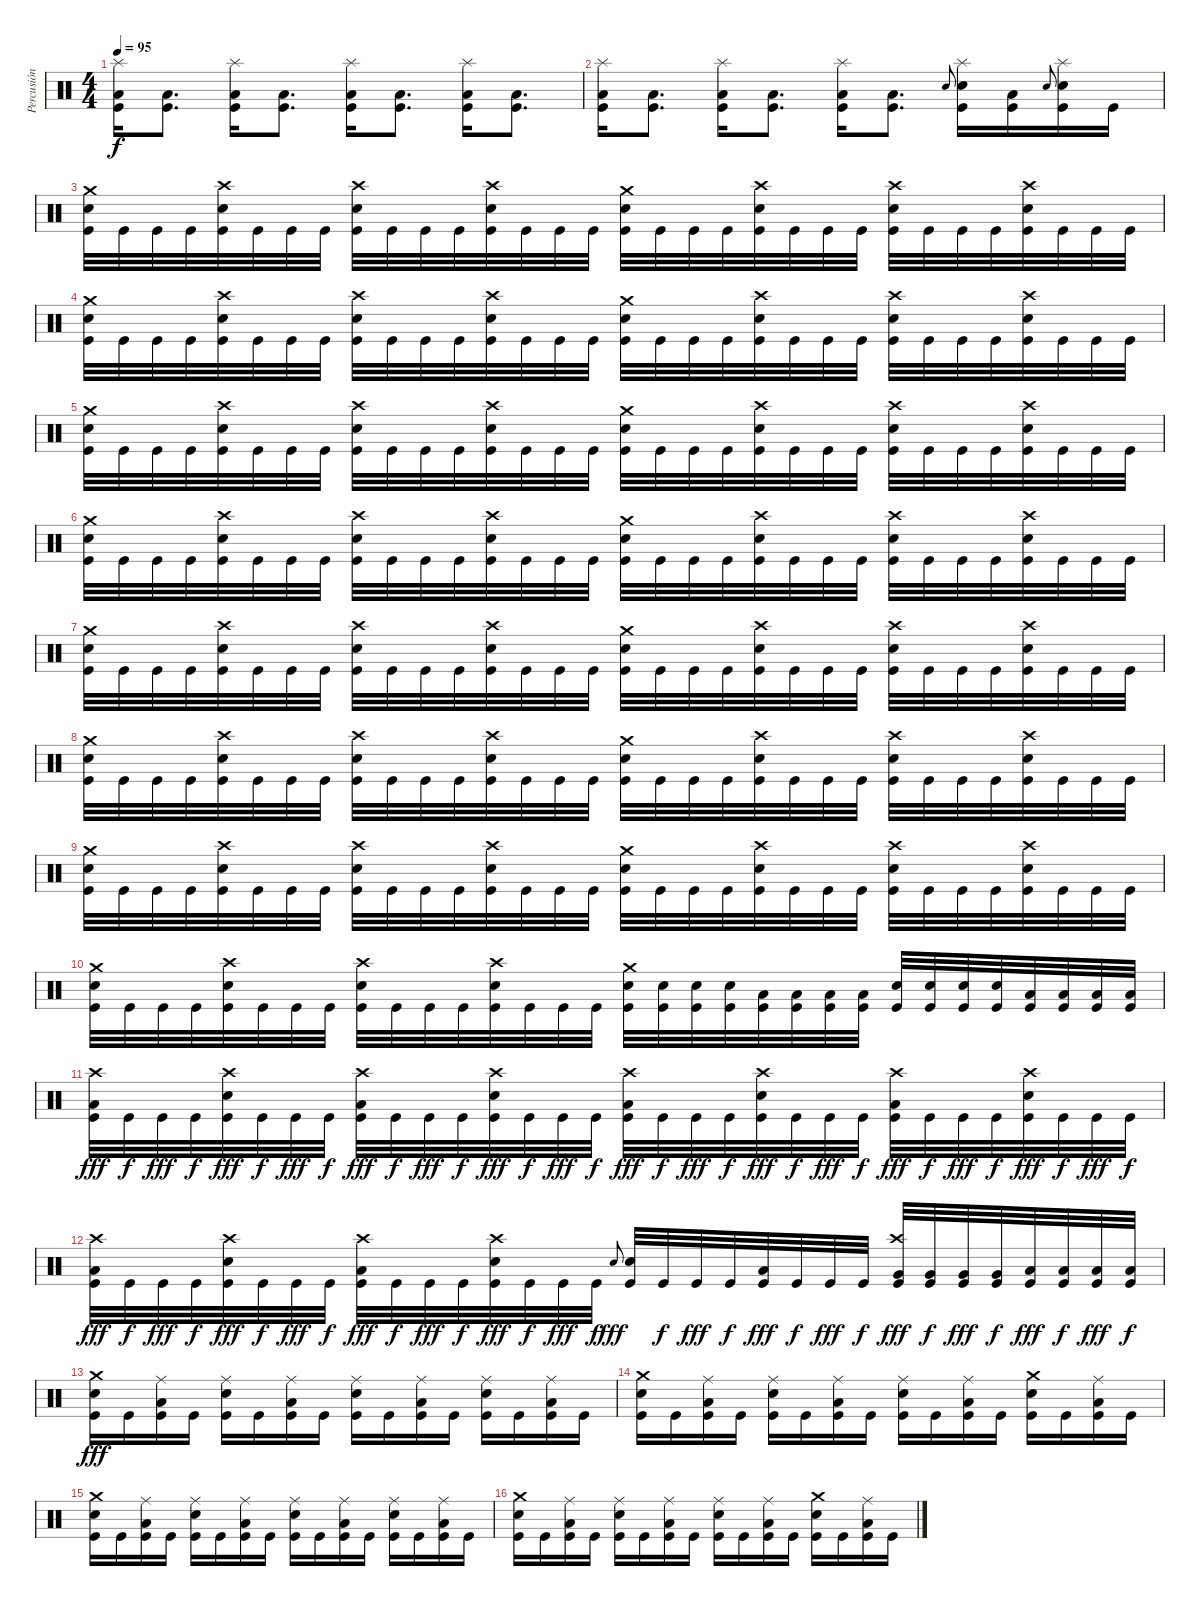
\track ("Percusión" "Percusión") {instrument percussion}
\staff {score}
\articulation defaults
\ts (4 4)
\tempo 95
\clef neutral
\ks c
("Splash (hit)" "Low Floor Tom (hit)" "Kick (hit)").16{dy f} ("Low Floor Tom (hit)" "Kick (hit)").8{d} ("Splash (hit)" "Low Floor Tom (hit)" "Kick (hit)").16 ("Low Floor Tom (hit)" "Kick (hit)").8{d} ("Splash (hit)" "Low Floor Tom (hit)" "Kick (hit)").16 ("Low Floor Tom (hit)" "Kick (hit)").8{d} ("Splash (hit)" "Low Floor Tom (hit)" "Kick (hit)").16 ("Low Floor Tom (hit)" "Kick (hit)").8{d} |
("Splash (hit)" "Low Floor Tom (hit)" "Kick (hit)").16 ("Low Floor Tom (hit)" "Kick (hit)").8{d} ("Splash (hit)" "Low Floor Tom (hit)" "Kick (hit)").16 ("Low Floor Tom (hit)" "Kick (hit)").8{d} ("Splash (hit)" "Low Floor Tom (hit)" "Kick (hit)").16 ("Low Floor Tom (hit)" "Kick (hit)").8{d} "Snare (hit) 2".8{gr onbeat} ("Splash (hit)" "Snare (hit) 2" "Kick (hit)").16 ("Low Floor Tom (hit)" "Kick (hit)").16 "Snare (hit) 2".8{gr onbeat} ("Splash (hit)" "Snare (hit) 2" "Kick (hit)").16 "Kick (hit)".16 |
("Crash medium (hit)" "Snare (hit) 2" "Kick (hit)").32 "Kick (hit)".32 "Kick (hit)".32 "Kick (hit)".32 ("Crash high (hit)" "Snare (hit) 2" "Kick (hit)").32 "Kick (hit)".32 "Kick (hit)".32 "Kick (hit)".32 ("Crash high (hit)" "Snare (hit) 2" "Kick (hit)").32 "Kick (hit)".32 "Kick (hit)".32 "Kick (hit)".32 ("Crash high (hit)" "Snare (hit) 2" "Kick (hit)").32 "Kick (hit)".32 "Kick (hit)".32 "Kick (hit)".32 ("Crash medium (hit)" "Snare (hit) 2" "Kick (hit)").32 "Kick (hit)".32 "Kick (hit)".32 "Kick (hit)".32 ("Crash high (hit)" "Snare (hit) 2" "Kick (hit)").32 "Kick (hit)".32 "Kick (hit)".32 "Kick (hit)".32 ("Crash high (hit)" "Snare (hit) 2" "Kick (hit)").32 "Kick (hit)".32 "Kick (hit)".32 "Kick (hit)".32 ("Crash high (hit)" "Snare (hit) 2" "Kick (hit)").32 "Kick (hit)".32 "Kick (hit)".32 "Kick (hit)".32 |
("Crash medium (hit)" "Snare (hit) 2" "Kick (hit)").32 "Kick (hit)".32 "Kick (hit)".32 "Kick (hit)".32 ("Crash high (hit)" "Snare (hit) 2" "Kick (hit)").32 "Kick (hit)".32 "Kick (hit)".32 "Kick (hit)".32 ("Crash high (hit)" "Snare (hit) 2" "Kick (hit)").32 "Kick (hit)".32 "Kick (hit)".32 "Kick (hit)".32 ("Crash high (hit)" "Snare (hit) 2" "Kick (hit)").32 "Kick (hit)".32 "Kick (hit)".32 "Kick (hit)".32 ("Crash medium (hit)" "Snare (hit) 2" "Kick (hit)").32 "Kick (hit)".32 "Kick (hit)".32 "Kick (hit)".32 ("Crash high (hit)" "Snare (hit) 2" "Kick (hit)").32 "Kick (hit)".32 "Kick (hit)".32 "Kick (hit)".32 ("Crash high (hit)" "Snare (hit) 2" "Kick (hit)").32 "Kick (hit)".32 "Kick (hit)".32 "Kick (hit)".32 ("Crash high (hit)" "Snare (hit) 2" "Kick (hit)").32 "Kick (hit)".32 "Kick (hit)".32 "Kick (hit)".32 |
("Crash medium (hit)" "Snare (hit) 2" "Kick (hit)").32 "Kick (hit)".32 "Kick (hit)".32 "Kick (hit)".32 ("Crash high (hit)" "Snare (hit) 2" "Kick (hit)").32 "Kick (hit)".32 "Kick (hit)".32 "Kick (hit)".32 ("Crash high (hit)" "Snare (hit) 2" "Kick (hit)").32 "Kick (hit)".32 "Kick (hit)".32 "Kick (hit)".32 ("Crash high (hit)" "Snare (hit) 2" "Kick (hit)").32 "Kick (hit)".32 "Kick (hit)".32 "Kick (hit)".32 ("Crash medium (hit)" "Snare (hit) 2" "Kick (hit)").32 "Kick (hit)".32 "Kick (hit)".32 "Kick (hit)".32 ("Crash high (hit)" "Snare (hit) 2" "Kick (hit)").32 "Kick (hit)".32 "Kick (hit)".32 "Kick (hit)".32 ("Crash high (hit)" "Snare (hit) 2" "Kick (hit)").32 "Kick (hit)".32 "Kick (hit)".32 "Kick (hit)".32 ("Crash high (hit)" "Snare (hit) 2" "Kick (hit)").32 "Kick (hit)".32 "Kick (hit)".32 "Kick (hit)".32 |
("Crash medium (hit)" "Snare (hit) 2" "Kick (hit)").32 "Kick (hit)".32 "Kick (hit)".32 "Kick (hit)".32 ("Crash high (hit)" "Snare (hit) 2" "Kick (hit)").32 "Kick (hit)".32 "Kick (hit)".32 "Kick (hit)".32 ("Crash high (hit)" "Snare (hit) 2" "Kick (hit)").32 "Kick (hit)".32 "Kick (hit)".32 "Kick (hit)".32 ("Crash high (hit)" "Snare (hit) 2" "Kick (hit)").32 "Kick (hit)".32 "Kick (hit)".32 "Kick (hit)".32 ("Crash medium (hit)" "Snare (hit) 2" "Kick (hit)").32 "Kick (hit)".32 "Kick (hit)".32 "Kick (hit)".32 ("Crash high (hit)" "Snare (hit) 2" "Kick (hit)").32 "Kick (hit)".32 "Kick (hit)".32 "Kick (hit)".32 ("Crash high (hit)" "Snare (hit) 2" "Kick (hit)").32 "Kick (hit)".32 "Kick (hit)".32 "Kick (hit)".32 ("Crash high (hit)" "Snare (hit) 2" "Kick (hit)").32 "Kick (hit)".32 "Kick (hit)".32 "Kick (hit)".32 |
("Crash medium (hit)" "Snare (hit) 2" "Kick (hit)").32 "Kick (hit)".32 "Kick (hit)".32 "Kick (hit)".32 ("Crash high (hit)" "Snare (hit) 2" "Kick (hit)").32 "Kick (hit)".32 "Kick (hit)".32 "Kick (hit)".32 ("Crash high (hit)" "Snare (hit) 2" "Kick (hit)").32 "Kick (hit)".32 "Kick (hit)".32 "Kick (hit)".32 ("Crash high (hit)" "Snare (hit) 2" "Kick (hit)").32 "Kick (hit)".32 "Kick (hit)".32 "Kick (hit)".32 ("Crash medium (hit)" "Snare (hit) 2" "Kick (hit)").32 "Kick (hit)".32 "Kick (hit)".32 "Kick (hit)".32 ("Crash high (hit)" "Snare (hit) 2" "Kick (hit)").32 "Kick (hit)".32 "Kick (hit)".32 "Kick (hit)".32 ("Crash high (hit)" "Snare (hit) 2" "Kick (hit)").32 "Kick (hit)".32 "Kick (hit)".32 "Kick (hit)".32 ("Crash high (hit)" "Snare (hit) 2" "Kick (hit)").32 "Kick (hit)".32 "Kick (hit)".32 "Kick (hit)".32 |
("Crash medium (hit)" "Snare (hit) 2" "Kick (hit)").32 "Kick (hit)".32 "Kick (hit)".32 "Kick (hit)".32 ("Crash high (hit)" "Snare (hit) 2" "Kick (hit)").32 "Kick (hit)".32 "Kick (hit)".32 "Kick (hit)".32 ("Crash high (hit)" "Snare (hit) 2" "Kick (hit)").32 "Kick (hit)".32 "Kick (hit)".32 "Kick (hit)".32 ("Crash high (hit)" "Snare (hit) 2" "Kick (hit)").32 "Kick (hit)".32 "Kick (hit)".32 "Kick (hit)".32 ("Crash medium (hit)" "Snare (hit) 2" "Kick (hit)").32 "Kick (hit)".32 "Kick (hit)".32 "Kick (hit)".32 ("Crash high (hit)" "Snare (hit) 2" "Kick (hit)").32 "Kick (hit)".32 "Kick (hit)".32 "Kick (hit)".32 ("Crash high (hit)" "Snare (hit) 2" "Kick (hit)").32 "Kick (hit)".32 "Kick (hit)".32 "Kick (hit)".32 ("Crash high (hit)" "Snare (hit) 2" "Kick (hit)").32 "Kick (hit)".32 "Kick (hit)".32 "Kick (hit)".32 |
("Crash medium (hit)" "Snare (hit) 2" "Kick (hit)").32 "Kick (hit)".32 "Kick (hit)".32 "Kick (hit)".32 ("Crash high (hit)" "Snare (hit) 2" "Kick (hit)").32 "Kick (hit)".32 "Kick (hit)".32 "Kick (hit)".32 ("Crash high (hit)" "Snare (hit) 2" "Kick (hit)").32 "Kick (hit)".32 "Kick (hit)".32 "Kick (hit)".32 ("Crash high (hit)" "Snare (hit) 2" "Kick (hit)").32 "Kick (hit)".32 "Kick (hit)".32 "Kick (hit)".32 ("Crash medium (hit)" "Snare (hit) 2" "Kick (hit)").32 "Kick (hit)".32 "Kick (hit)".32 "Kick (hit)".32 ("Crash high (hit)" "Snare (hit) 2" "Kick (hit)").32 "Kick (hit)".32 "Kick (hit)".32 "Kick (hit)".32 ("Crash high (hit)" "Snare (hit) 2" "Kick (hit)").32 "Kick (hit)".32 "Kick (hit)".32 "Kick (hit)".32 ("Crash high (hit)" "Snare (hit) 2" "Kick (hit)").32 "Kick (hit)".32 "Kick (hit)".32 "Kick (hit)".32 |
("Crash medium (hit)" "Snare (hit) 2" "Kick (hit)").32 "Kick (hit)".32 "Kick (hit)".32 "Kick (hit)".32 ("Crash high (hit)" "Snare (hit) 2" "Kick (hit)").32 "Kick (hit)".32 "Kick (hit)".32 "Kick (hit)".32 ("Crash high (hit)" "Snare (hit) 2" "Kick (hit)").32 "Kick (hit)".32 "Kick (hit)".32 "Kick (hit)".32 ("Crash high (hit)" "Snare (hit) 2" "Kick (hit)").32 "Kick (hit)".32 "Kick (hit)".32 "Kick (hit)".32 ("Crash medium (hit)" "Snare (hit) 2" "Kick (hit)").32 ("Snare (hit) 2" "Kick (hit)").32 ("Snare (hit) 2" "Kick (hit)").32 ("Snare (hit) 2" "Kick (hit)").32 ("Low Floor Tom (hit)" "Kick (hit)").32 ("Low Floor Tom (hit)" "Kick (hit)").32 ("Low Floor Tom (hit)" "Kick (hit)").32 ("Low Floor Tom (hit)" "Kick (hit)").32 ("Snare (hit) 2" "Kick (hit)").32 ("Snare (hit) 2" "Kick (hit)").32 ("Snare (hit) 2" "Kick (hit)").32 ("Snare (hit) 2" "Kick (hit)").32 ("Low Floor Tom (hit)" "Kick (hit)").32 ("Low Floor Tom (hit)" "Kick (hit)").32 ("Low Floor Tom (hit)" "Kick (hit)").32 ("Low Floor Tom (hit)" "Kick (hit)").32 |
("Crash high (hit)" "Low Floor Tom (hit)" "Kick (hit)").32{dy fff} "Kick (hit)".32{dy f} "Kick (hit)".32{dy fff} "Kick (hit)".32{dy f} ("Crash high (hit)" "Snare (hit) 2" "Kick (hit)").32{dy fff} "Kick (hit)".32{dy f} "Kick (hit)".32{dy fff} "Kick (hit)".32{dy f} ("Crash high (hit)" "Low Floor Tom (hit)" "Kick (hit)").32{dy fff} "Kick (hit)".32{dy f} "Kick (hit)".32{dy fff} "Kick (hit)".32{dy f} ("Crash high (hit)" "Snare (hit) 2" "Kick (hit)").32{dy fff} "Kick (hit)".32{dy f} "Kick (hit)".32{dy fff} "Kick (hit)".32{dy f} ("Crash high (hit)" "Low Floor Tom (hit)" "Kick (hit)").32{dy fff} "Kick (hit)".32{dy f} "Kick (hit)".32{dy fff} "Kick (hit)".32{dy f} ("Crash high (hit)" "Snare (hit) 2" "Kick (hit)").32{dy fff} "Kick (hit)".32{dy f} "Kick (hit)".32{dy fff} "Kick (hit)".32{dy f} ("Crash high (hit)" "Low Floor Tom (hit)" "Kick (hit)").32{dy fff} "Kick (hit)".32{dy f} "Kick (hit)".32{dy fff} "Kick (hit)".32{dy f} ("Crash high (hit)" "Snare (hit) 2" "Kick (hit)").32{dy fff} "Kick (hit)".32{dy f} "Kick (hit)".32{dy fff} "Kick (hit)".32{dy f} |
("Crash high (hit)" "Low Floor Tom (hit)" "Kick (hit)").32{dy fff} "Kick (hit)".32{dy f} "Kick (hit)".32{dy fff} "Kick (hit)".32{dy f} ("Crash high (hit)" "Snare (hit) 2" "Kick (hit)").32{dy fff} "Kick (hit)".32{dy f} "Kick (hit)".32{dy fff} "Kick (hit)".32{dy f} ("Crash high (hit)" "Low Floor Tom (hit)" "Kick (hit)").32{dy fff} "Kick (hit)".32{dy f} "Kick (hit)".32{dy fff} "Kick (hit)".32{dy f} ("Crash high (hit)" "Snare (hit) 2" "Kick (hit)").32{dy fff} "Kick (hit)".32{dy f} "Kick (hit)".32{dy fff} "Kick (hit)".32{dy f} "Snare (hit) 2".8{gr onbeat dy fff} ("Snare (hit) 2" "Kick (hit)").32 "Kick (hit)".32{dy f} "Kick (hit)".32{dy fff} "Kick (hit)".32{dy f} ("Low Floor Tom (hit)" "Kick (hit)").32{dy fff} "Kick (hit)".32{dy f} "Kick (hit)".32{dy fff} "Kick (hit)".32{dy f} ("Crash high (hit)" "Very Low Tom (hit)" "Kick (hit)").32{dy fff} ("Very Low Tom (hit)" "Kick (hit)").32{dy f} ("Very Low Tom (hit)" "Kick (hit)").32{dy fff} ("Very Low Tom (hit)" "Kick (hit)").32{dy f} ("Low Floor Tom (hit)" "Kick (hit)").32{dy fff} ("Low Floor Tom (hit)" "Kick (hit)").32{dy f} ("Low Floor Tom (hit)" "Kick (hit)").32{dy fff} ("Low Floor Tom (hit)" "Kick (hit)").32{dy f} |
("Crash medium (hit)" "Snare (hit) 2" "Kick (hit)").16{dy fff} "Kick (hit)".16 ("Ride (middle)" "Low Floor Tom (hit)" "Kick (hit)").16 "Kick (hit)".16 ("Ride (middle)" "Snare (hit) 2" "Kick (hit)").16 "Kick (hit)".16 ("Ride (middle)" "Low Floor Tom (hit)" "Kick (hit)").16 "Kick (hit)".16 ("Ride (middle)" "Snare (hit) 2" "Kick (hit)").16 "Kick (hit)".16 ("Ride (middle)" "Low Floor Tom (hit)" "Kick (hit)").16 "Kick (hit)".16 ("Ride (middle)" "Snare (hit) 2" "Kick (hit)").16 "Kick (hit)".16 ("Ride (middle)" "Low Floor Tom (hit)" "Kick (hit)").16 "Kick (hit)".16 |
("Crash medium (hit)" "Snare (hit) 2" "Kick (hit)").16 "Kick (hit)".16 ("Ride (middle)" "Low Floor Tom (hit)" "Kick (hit)").16 "Kick (hit)".16 ("Ride (middle)" "Snare (hit) 2" "Kick (hit)").16 "Kick (hit)".16 ("Ride (middle)" "Low Floor Tom (hit)" "Kick (hit)").16 "Kick (hit)".16 ("Ride (middle)" "Snare (hit) 2" "Kick (hit)").16 "Kick (hit)".16 ("Ride (middle)" "Low Floor Tom (hit)" "Kick (hit)").16 "Kick (hit)".16 ("Crash medium (hit)" "Snare (hit) 2" "Kick (hit)").16 "Kick (hit)".16 ("Ride (middle)" "Low Floor Tom (hit)" "Kick (hit)").16 "Kick (hit)".16 |
("Crash medium (hit)" "Snare (hit) 2" "Kick (hit)").16 "Kick (hit)".16 ("Ride (middle)" "Low Floor Tom (hit)" "Kick (hit)").16 "Kick (hit)".16 ("Ride (middle)" "Snare (hit) 2" "Kick (hit)").16 "Kick (hit)".16 ("Ride (middle)" "Low Floor Tom (hit)" "Kick (hit)").16 "Kick (hit)".16 ("Ride (middle)" "Snare (hit) 2" "Kick (hit)").16 "Kick (hit)".16 ("Ride (middle)" "Low Floor Tom (hit)" "Kick (hit)").16 "Kick (hit)".16 ("Ride (middle)" "Snare (hit) 2" "Kick (hit)").16 "Kick (hit)".16 ("Ride (middle)" "Low Floor Tom (hit)" "Kick (hit)").16 "Kick (hit)".16 |
("Crash medium (hit)" "Snare (hit) 2" "Kick (hit)").16 "Kick (hit)".16 ("Ride (middle)" "Low Floor Tom (hit)" "Kick (hit)").16 "Kick (hit)".16 ("Ride (middle)" "Snare (hit) 2" "Kick (hit)").16 "Kick (hit)".16 ("Ride (middle)" "Low Floor Tom (hit)" "Kick (hit)").16 "Kick (hit)".16 ("Ride (middle)" "Snare (hit) 2" "Kick (hit)").16 "Kick (hit)".16 ("Ride (middle)" "Low Floor Tom (hit)" "Kick (hit)").16 "Kick (hit)".16 ("Crash medium (hit)" "Snare (hit) 2" "Kick (hit)").16 "Kick (hit)".16 ("Ride (middle)" "Low Floor Tom (hit)" "Kick (hit)").16 "Kick (hit)".16
